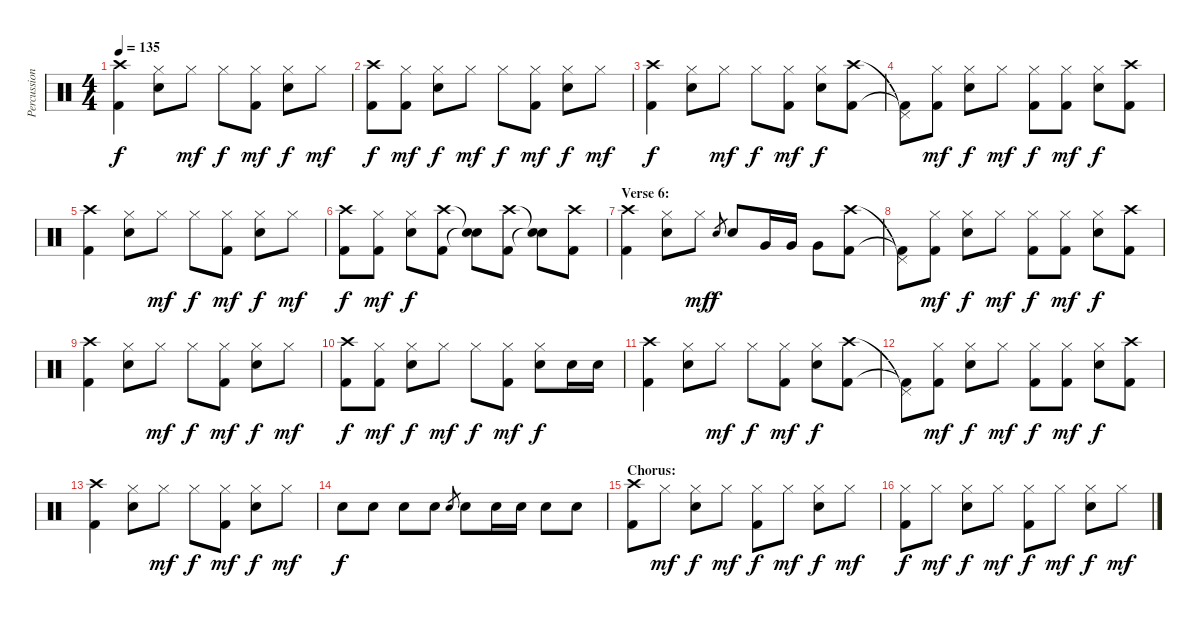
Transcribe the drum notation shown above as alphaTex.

\track ("Percussion" "Percussion") {instrument percussion}
\staff {score}
\articulation defaults
\ts (4 4)
\tempo 135
\clef neutral
\ks c
("Crash high (hit)" "Kick (hit) 2").4{dy f} ("Hi-Hat (closed)" "Snare (hit) 2").8 "Hi-Hat (closed)".8{dy mf} "Hi-Hat (closed)".8{dy f} ("Hi-Hat (closed)" "Kick (hit) 2").8{dy mf} ("Hi-Hat (closed)" "Snare (hit) 2").8{dy f} "Hi-Hat (closed)".8{dy mf} |
("Crash high (hit)" "Kick (hit) 2").8{dy f} ("Hi-Hat (closed)" "Kick (hit) 2").8{dy mf} ("Hi-Hat (closed)" "Snare (hit) 2").8{dy f} "Hi-Hat (closed)".8{dy mf} "Hi-Hat (closed)".8{dy f} ("Hi-Hat (closed)" "Kick (hit) 2").8{dy mf} ("Hi-Hat (closed)" "Snare (hit) 2").8{dy f} "Hi-Hat (closed)".8{dy mf} |
("Crash high (hit)" "Kick (hit) 2").4{dy f} ("Hi-Hat (closed)" "Snare (hit) 2").8 "Hi-Hat (closed)".8{dy mf} "Hi-Hat (closed)".8{dy f} ("Hi-Hat (closed)" "Kick (hit) 2").8{dy mf} ("Hi-Hat (closed)" "Snare (hit) 2").8{dy f} ("Crash high (hit)" "Kick (hit) 2").8 |
("Pedal Hi-Hat (hit)"{t} "Kick (hit) 2"{t}).8 ("Hi-Hat (closed)" "Kick (hit) 2").8{dy mf} ("Hi-Hat (closed)" "Snare (hit) 2").8{dy f} "Hi-Hat (closed)".8{dy mf} ("Hi-Hat (closed)" "Kick (hit) 2").8{dy f} ("Hi-Hat (closed)" "Kick (hit) 2").8{dy mf} ("Hi-Hat (closed)" "Snare (hit) 2").8{dy f} ("Crash high (hit)" "Kick (hit) 2").8 |
("Crash high (hit)" "Kick (hit) 2").4 ("Hi-Hat (closed)" "Snare (hit) 2").8 "Hi-Hat (closed)".8{dy mf} "Hi-Hat (closed)".8{dy f} ("Hi-Hat (closed)" "Kick (hit) 2").8{dy mf} ("Hi-Hat (closed)" "Snare (hit) 2").8{dy f} "Hi-Hat (closed)".8{dy mf} |
("Crash high (hit)" "Kick (hit) 2").8{dy f} ("Hi-Hat (closed)" "Kick (hit) 2").8{dy mf} ("Hi-Hat (closed)" "Snare (hit) 2").8{dy f} ("Crash high (hit)" "Kick (hit) 2").8 ("Snare (hit)"{t} "Snare (hit)"{t}).8 ("Crash high (hit)" "Kick (hit) 2").8 ("Snare (hit)"{t} "Snare (hit)"{t}).8 ("Crash high (hit)" "Kick (hit) 2").8 |
\section ("" "Verse 6:")
("Crash high (hit)" "Kick (hit) 2").4 ("Hi-Hat (closed)" "Snare (hit) 2").8 "Hi-Hat (closed)".8{dy mf} "Snare (hit) 2".8{gr dy f} "Snare (hit) 2".8 "Very Low Tom (hit)".16 "Very Low Tom (hit)".16 "Very Low Tom (hit)".8 ("Crash high (hit)" "Kick (hit) 2").8 |
("Pedal Hi-Hat (hit)"{t} "Kick (hit) 2"{t}).8 ("Hi-Hat (closed)" "Kick (hit) 2").8{dy mf} ("Hi-Hat (closed)" "Snare (hit) 2").8{dy f} "Hi-Hat (closed)".8{dy mf} ("Hi-Hat (closed)" "Kick (hit) 2").8{dy f} ("Hi-Hat (closed)" "Kick (hit) 2").8{dy mf} ("Hi-Hat (closed)" "Snare (hit) 2").8{dy f} ("Crash high (hit)" "Kick (hit) 2").8 |
("Crash high (hit)" "Kick (hit) 2").4 ("Hi-Hat (closed)" "Snare (hit) 2").8 "Hi-Hat (closed)".8{dy mf} "Hi-Hat (closed)".8{dy f} ("Hi-Hat (closed)" "Kick (hit) 2").8{dy mf} ("Hi-Hat (closed)" "Snare (hit) 2").8{dy f} "Hi-Hat (closed)".8{dy mf} |
("Crash high (hit)" "Kick (hit) 2").8{dy f} ("Hi-Hat (closed)" "Kick (hit) 2").8{dy mf} ("Hi-Hat (closed)" "Snare (hit) 2").8{dy f} "Hi-Hat (closed)".8{dy mf} "Hi-Hat (closed)".8{dy f} ("Hi-Hat (closed)" "Kick (hit) 2").8{dy mf} ("Hi-Hat (closed)" "Snare (hit) 2").8{dy f} "Snare (hit) 2".16 "Snare (hit) 2".16 |
("Crash high (hit)" "Kick (hit) 2").4 ("Hi-Hat (closed)" "Snare (hit) 2").8 "Hi-Hat (closed)".8{dy mf} "Hi-Hat (closed)".8{dy f} ("Hi-Hat (closed)" "Kick (hit) 2").8{dy mf} ("Hi-Hat (closed)" "Snare (hit) 2").8{dy f} ("Crash high (hit)" "Kick (hit) 2").8 |
("Pedal Hi-Hat (hit)"{t} "Kick (hit) 2"{t}).8 ("Hi-Hat (closed)" "Kick (hit) 2").8{dy mf} ("Hi-Hat (closed)" "Snare (hit) 2").8{dy f} "Hi-Hat (closed)".8{dy mf} ("Hi-Hat (closed)" "Kick (hit) 2").8{dy f} ("Hi-Hat (closed)" "Kick (hit) 2").8{dy mf} ("Hi-Hat (closed)" "Snare (hit) 2").8{dy f} ("Crash high (hit)" "Kick (hit) 2").8 |
("Crash high (hit)" "Kick (hit) 2").4 ("Hi-Hat (closed)" "Snare (hit) 2").8 "Hi-Hat (closed)".8{dy mf} "Hi-Hat (closed)".8{dy f} ("Hi-Hat (closed)" "Kick (hit) 2").8{dy mf} ("Hi-Hat (closed)" "Snare (hit) 2").8{dy f} "Hi-Hat (closed)".8{dy mf} |
"Snare (hit) 2".8{dy f} "Snare (hit) 2".8 "Snare (hit) 2".8 "Snare (hit) 2".8 "Snare (hit) 2".8{gr} "Snare (hit) 2".8 "Snare (hit) 2".16 "Snare (hit) 2".16 "Snare (hit) 2".8 "Snare (hit) 2".8 |
\section ("" "Chorus:")
("Crash high (hit)" "Kick (hit) 2").8 "Hi-Hat (closed)".8{dy mf} ("Hi-Hat (closed)" "Snare (hit) 2").8{dy f} "Hi-Hat (closed)".8{dy mf} ("Hi-Hat (closed)" "Kick (hit) 2").8{dy f} "Hi-Hat (closed)".8{dy mf} ("Hi-Hat (closed)" "Snare (hit) 2").8{dy f} "Hi-Hat (closed)".8{dy mf} |
("Hi-Hat (closed)" "Kick (hit) 2").8{dy f} "Hi-Hat (closed)".8{dy mf} ("Hi-Hat (closed)" "Snare (hit) 2").8{dy f} "Hi-Hat (closed)".8{dy mf} ("Hi-Hat (closed)" "Kick (hit) 2").8{dy f} "Hi-Hat (closed)".8{dy mf} ("Hi-Hat (closed)" "Snare (hit) 2").8{dy f} "Hi-Hat (closed)".8{dy mf}
